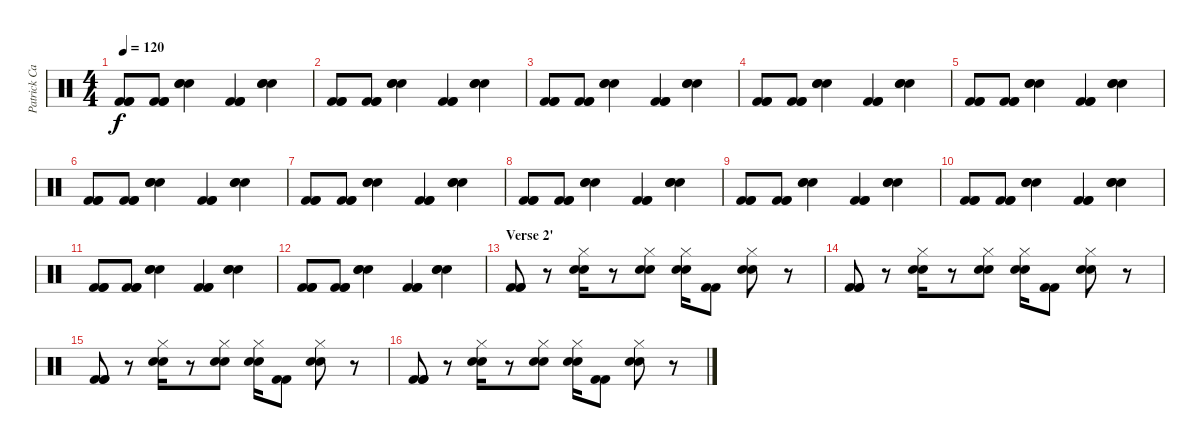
\track ("Patrick Carney (Drums)" "Patrick Ca") {instrument percussion}
\staff {score}
\articulation defaults
\ts (4 4)
\tempo 120
\clef neutral
\ks c
("Kick (hit) 2" "Kick (hit) 2" "Kick (hit) 2").8{dy f} ("Kick (hit) 2" "Kick (hit) 2" "Kick (hit) 2").8 ("Electric Snare (hit)" "Snare (hit) 2" "Snare (hit) 2").4 ("Kick (hit) 2" "Kick (hit) 2" "Kick (hit) 2").4 ("Electric Snare (hit)" "Snare (hit) 2" "Snare (hit) 2").4 |
("Kick (hit) 2" "Kick (hit) 2" "Kick (hit) 2").8 ("Kick (hit) 2" "Kick (hit) 2" "Kick (hit) 2").8 ("Electric Snare (hit)" "Snare (hit) 2" "Snare (hit) 2").4 ("Kick (hit) 2" "Kick (hit) 2" "Kick (hit) 2").4 ("Electric Snare (hit)" "Snare (hit) 2" "Snare (hit) 2").4 |
("Kick (hit) 2" "Kick (hit) 2" "Kick (hit) 2").8 ("Kick (hit) 2" "Kick (hit) 2" "Kick (hit) 2").8 ("Electric Snare (hit)" "Snare (hit) 2" "Snare (hit) 2").4 ("Kick (hit) 2" "Kick (hit) 2" "Kick (hit) 2").4 ("Electric Snare (hit)" "Snare (hit) 2" "Snare (hit) 2").4 |
("Kick (hit) 2" "Kick (hit) 2" "Kick (hit) 2").8 ("Kick (hit) 2" "Kick (hit) 2" "Kick (hit) 2").8 ("Electric Snare (hit)" "Snare (hit) 2" "Snare (hit) 2").4 ("Kick (hit) 2" "Kick (hit) 2" "Kick (hit) 2").4 ("Electric Snare (hit)" "Snare (hit) 2" "Snare (hit) 2").4 |
("Kick (hit) 2" "Kick (hit) 2" "Kick (hit) 2").8 ("Kick (hit) 2" "Kick (hit) 2" "Kick (hit) 2").8 ("Electric Snare (hit)" "Snare (hit) 2" "Snare (hit) 2").4 ("Kick (hit) 2" "Kick (hit) 2" "Kick (hit) 2").4 ("Electric Snare (hit)" "Snare (hit) 2" "Snare (hit) 2").4 |
("Kick (hit) 2" "Kick (hit) 2" "Kick (hit) 2").8 ("Kick (hit) 2" "Kick (hit) 2" "Kick (hit) 2").8 ("Electric Snare (hit)" "Snare (hit) 2" "Snare (hit) 2").4 ("Kick (hit) 2" "Kick (hit) 2" "Kick (hit) 2").4 ("Electric Snare (hit)" "Snare (hit) 2" "Snare (hit) 2").4 |
("Kick (hit) 2" "Kick (hit) 2" "Kick (hit) 2").8 ("Kick (hit) 2" "Kick (hit) 2" "Kick (hit) 2").8 ("Electric Snare (hit)" "Snare (hit) 2" "Snare (hit) 2").4 ("Kick (hit) 2" "Kick (hit) 2" "Kick (hit) 2").4 ("Electric Snare (hit)" "Snare (hit) 2" "Snare (hit) 2").4 |
("Kick (hit) 2" "Kick (hit) 2" "Kick (hit) 2").8 ("Kick (hit) 2" "Kick (hit) 2" "Kick (hit) 2").8 ("Electric Snare (hit)" "Snare (hit) 2" "Snare (hit) 2").4 ("Kick (hit) 2" "Kick (hit) 2" "Kick (hit) 2").4 ("Electric Snare (hit)" "Snare (hit) 2" "Snare (hit) 2").4 |
("Kick (hit) 2" "Kick (hit) 2" "Kick (hit) 2").8 ("Kick (hit) 2" "Kick (hit) 2" "Kick (hit) 2").8 ("Electric Snare (hit)" "Snare (hit) 2" "Snare (hit) 2").4 ("Kick (hit) 2" "Kick (hit) 2" "Kick (hit) 2").4 ("Electric Snare (hit)" "Snare (hit) 2" "Snare (hit) 2").4 |
("Kick (hit) 2" "Kick (hit) 2" "Kick (hit) 2").8 ("Kick (hit) 2" "Kick (hit) 2" "Kick (hit) 2").8 ("Electric Snare (hit)" "Snare (hit) 2" "Snare (hit) 2").4 ("Kick (hit) 2" "Kick (hit) 2" "Kick (hit) 2").4 ("Electric Snare (hit)" "Snare (hit) 2" "Snare (hit) 2").4 |
("Kick (hit) 2" "Kick (hit) 2" "Kick (hit) 2").8 ("Kick (hit) 2" "Kick (hit) 2" "Kick (hit) 2").8 ("Electric Snare (hit)" "Snare (hit) 2" "Snare (hit) 2").4 ("Kick (hit) 2" "Kick (hit) 2" "Kick (hit) 2").4 ("Electric Snare (hit)" "Snare (hit) 2" "Snare (hit) 2").4 |
("Kick (hit) 2" "Kick (hit) 2" "Kick (hit) 2").8 ("Kick (hit) 2" "Kick (hit) 2" "Kick (hit) 2").8 ("Electric Snare (hit)" "Snare (hit) 2" "Snare (hit) 2").4 ("Kick (hit) 2" "Kick (hit) 2" "Kick (hit) 2").4 ("Electric Snare (hit)" "Snare (hit) 2" "Snare (hit) 2").4 |
\section ("" "Verse 2'")
("Kick (hit) 2" "Kick (hit) 2" "Kick (hit) 2").8 r.8 ("Electric Snare (hit)" "Snare (hit) 2" "Hi-Hat (closed)").16 r.8 ("Electric Snare (hit)" "Snare (hit) 2" "Hi-Hat (closed)").8 ("Electric Snare (hit)" "Snare (hit) 2" "Hi-Hat (closed)").16 ("Kick (hit) 2" "Kick (hit) 2").8 ("Electric Snare (hit)" "Snare (hit) 2" "Hi-Hat (closed)").8 r.8 |
("Kick (hit) 2" "Kick (hit) 2" "Kick (hit) 2").8 r.8 ("Electric Snare (hit)" "Snare (hit) 2" "Hi-Hat (closed)").16 r.8 ("Electric Snare (hit)" "Snare (hit) 2" "Hi-Hat (closed)").8 ("Electric Snare (hit)" "Snare (hit) 2" "Hi-Hat (closed)").16 ("Kick (hit) 2" "Kick (hit) 2").8 ("Electric Snare (hit)" "Snare (hit) 2" "Hi-Hat (closed)").8 r.8 |
("Kick (hit) 2" "Kick (hit) 2" "Kick (hit) 2").8 r.8 ("Electric Snare (hit)" "Snare (hit) 2" "Hi-Hat (closed)").16 r.8 ("Electric Snare (hit)" "Snare (hit) 2" "Hi-Hat (closed)").8 ("Electric Snare (hit)" "Snare (hit) 2" "Hi-Hat (closed)").16 ("Kick (hit) 2" "Kick (hit) 2").8 ("Electric Snare (hit)" "Snare (hit) 2" "Hi-Hat (closed)").8 r.8 |
("Kick (hit) 2" "Kick (hit) 2" "Kick (hit) 2").8 r.8 ("Electric Snare (hit)" "Snare (hit) 2" "Hi-Hat (closed)").16 r.8 ("Electric Snare (hit)" "Snare (hit) 2" "Hi-Hat (closed)").8 ("Electric Snare (hit)" "Snare (hit) 2" "Hi-Hat (closed)").16 ("Kick (hit) 2" "Kick (hit) 2").8 ("Electric Snare (hit)" "Snare (hit) 2" "Hi-Hat (closed)").8 r.8
